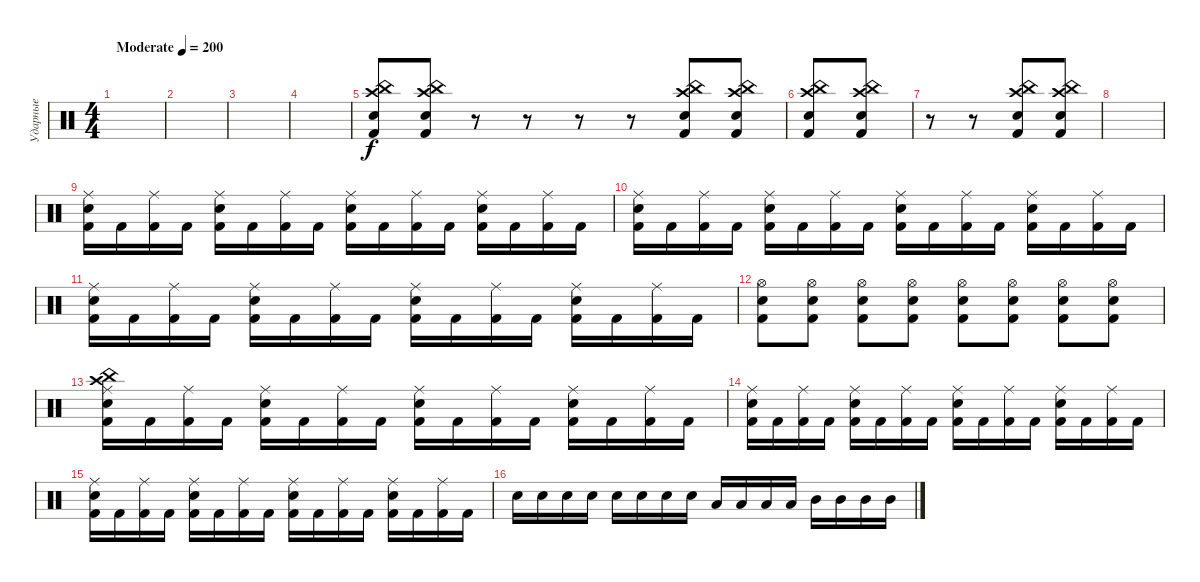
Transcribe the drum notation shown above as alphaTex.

\track ("Ударные" "Ударные") {instrument percussion}
\staff {score}
\articulation defaults
\ts (4 4)
\tempo (200 "Moderate")
\clef neutral
\ks c
|
|
|
|
("Electric Snare (hit)" "Crash high (hit)" "China (hit)" "Kick (hit) 2").8 ("China (hit)" "Crash high (hit)" "Kick (hit) 2" "Electric Snare (hit)").8 r.8 r.8 r.8 r.8 ("Electric Snare (hit)" "Kick (hit) 2" "Crash high (hit)" "China (hit)").8 ("China (hit)" "Crash high (hit)" "Kick (hit) 2" "Electric Snare (hit)").8 |
("Electric Snare (hit)" "Kick (hit) 2" "Crash high (hit)" "China (hit)").8 ("China (hit)" "Crash high (hit)" "Kick (hit) 2" "Electric Snare (hit)").8 |
r.8 r.8 ("Electric Snare (hit)" "Kick (hit) 2" "Crash high (hit)" "China (hit)").8 ("China (hit)" "Crash high (hit)" "Kick (hit) 2" "Electric Snare (hit)").8 |
|
("Kick (hit) 2" "Electric Snare (hit)" "Ride (middle)").16 "Kick (hit) 2".16 ("Kick (hit) 2" "Ride (middle)").16 "Kick (hit) 2".16 ("Kick (hit) 2" "Electric Snare (hit)" "Ride (middle)").16 "Kick (hit) 2".16 ("Kick (hit) 2" "Ride (middle)").16 "Kick (hit) 2".16 ("Kick (hit) 2" "Electric Snare (hit)" "Ride (middle)").16 "Kick (hit) 2".16 ("Kick (hit) 2" "Ride (middle)").16 "Kick (hit) 2".16 ("Kick (hit) 2" "Electric Snare (hit)" "Ride (middle)").16 "Kick (hit) 2".16 ("Kick (hit) 2" "Ride (middle)").16 "Kick (hit) 2".16 |
("Kick (hit) 2" "Electric Snare (hit)" "Ride (middle)").16 "Kick (hit) 2".16 ("Kick (hit) 2" "Ride (middle)").16 "Kick (hit) 2".16 ("Kick (hit) 2" "Electric Snare (hit)" "Ride (middle)").16 "Kick (hit) 2".16 ("Kick (hit) 2" "Ride (middle)").16 "Kick (hit) 2".16 ("Kick (hit) 2" "Electric Snare (hit)" "Ride (middle)").16 "Kick (hit) 2".16 ("Kick (hit) 2" "Ride (middle)").16 "Kick (hit) 2".16 ("Kick (hit) 2" "Electric Snare (hit)" "Ride (middle)").16 "Kick (hit) 2".16 ("Kick (hit) 2" "Ride (middle)").16 "Kick (hit) 2".16 |
("Kick (hit) 2" "Electric Snare (hit)" "Ride (middle)").16 "Kick (hit) 2".16 ("Kick (hit) 2" "Ride (middle)").16 "Kick (hit) 2".16 ("Kick (hit) 2" "Electric Snare (hit)" "Ride (middle)").16 "Kick (hit) 2".16 ("Kick (hit) 2" "Ride (middle)").16 "Kick (hit) 2".16 ("Kick (hit) 2" "Electric Snare (hit)" "Ride (middle)").16 "Kick (hit) 2".16 ("Kick (hit) 2" "Ride (middle)").16 "Kick (hit) 2".16 ("Kick (hit) 2" "Electric Snare (hit)" "Ride (middle)").16 "Kick (hit) 2".16 ("Kick (hit) 2" "Ride (middle)").16 "Kick (hit) 2".16 |
("Kick (hit) 2" "Electric Snare (hit)" "Hi-Hat (open)").8 ("Hi-Hat (open)" "Kick (hit) 2" "Electric Snare (hit)").8 ("Electric Snare (hit)" "Kick (hit) 2" "Hi-Hat (open)").8 ("Hi-Hat (open)" "Kick (hit) 2" "Electric Snare (hit)").8 ("Electric Snare (hit)" "Kick (hit) 2" "Hi-Hat (open)").8 ("Hi-Hat (open)" "Kick (hit) 2" "Electric Snare (hit)").8 ("Electric Snare (hit)" "Kick (hit) 2" "Hi-Hat (open)").8 ("Hi-Hat (open)" "Kick (hit) 2" "Electric Snare (hit)").8 |
("Kick (hit) 2" "Electric Snare (hit)" "Ride (middle)" "China (hit)" "Crash high (hit)").16 "Kick (hit) 2".16 ("Kick (hit) 2" "Ride (middle)").16 "Kick (hit) 2".16 ("Kick (hit) 2" "Electric Snare (hit)" "Ride (middle)").16 "Kick (hit) 2".16 ("Kick (hit) 2" "Ride (middle)").16 "Kick (hit) 2".16 ("Kick (hit) 2" "Electric Snare (hit)" "Ride (middle)").16 "Kick (hit) 2".16 ("Kick (hit) 2" "Ride (middle)").16 "Kick (hit) 2".16 ("Kick (hit) 2" "Electric Snare (hit)" "Ride (middle)").16 "Kick (hit) 2".16 ("Kick (hit) 2" "Ride (middle)").16 "Kick (hit) 2".16 |
("Kick (hit) 2" "Electric Snare (hit)" "Ride (middle)").16 "Kick (hit) 2".16 ("Kick (hit) 2" "Ride (middle)").16 "Kick (hit) 2".16 ("Kick (hit) 2" "Electric Snare (hit)" "Ride (middle)").16 "Kick (hit) 2".16 ("Kick (hit) 2" "Ride (middle)").16 "Kick (hit) 2".16 ("Kick (hit) 2" "Electric Snare (hit)" "Ride (middle)").16 "Kick (hit) 2".16 ("Kick (hit) 2" "Ride (middle)").16 "Kick (hit) 2".16 ("Kick (hit) 2" "Electric Snare (hit)" "Ride (middle)").16 "Kick (hit) 2".16 ("Kick (hit) 2" "Ride (middle)").16 "Kick (hit) 2".16 |
("Kick (hit) 2" "Electric Snare (hit)" "Ride (middle)").16 "Kick (hit) 2".16 ("Kick (hit) 2" "Ride (middle)").16 "Kick (hit) 2".16 ("Kick (hit) 2" "Electric Snare (hit)" "Ride (middle)").16 "Kick (hit) 2".16 ("Kick (hit) 2" "Ride (middle)").16 "Kick (hit) 2".16 ("Kick (hit) 2" "Electric Snare (hit)" "Ride (middle)").16 "Kick (hit) 2".16 ("Kick (hit) 2" "Ride (middle)").16 "Kick (hit) 2".16 ("Kick (hit) 2" "Electric Snare (hit)" "Ride (middle)").16 "Kick (hit) 2".16 ("Kick (hit) 2" "Ride (middle)").16 "Kick (hit) 2".16 |
"Electric Snare (hit)".16 "Electric Snare (hit)".16 "Electric Snare (hit)".16 "Electric Snare (hit)".16 "Snare (hit) 2".16 "Snare (hit) 2".16 "Snare (hit) 2".16 "Snare (hit) 2".16 "Low Tom (hit)".16 "Low Tom (hit)".16 "Low Tom (hit)".16 "Low Tom (hit)".16 "Mid Tom (hit)".16 "Mid Tom (hit)".16 "Mid Tom (hit)".16 "Mid Tom (hit)".16
